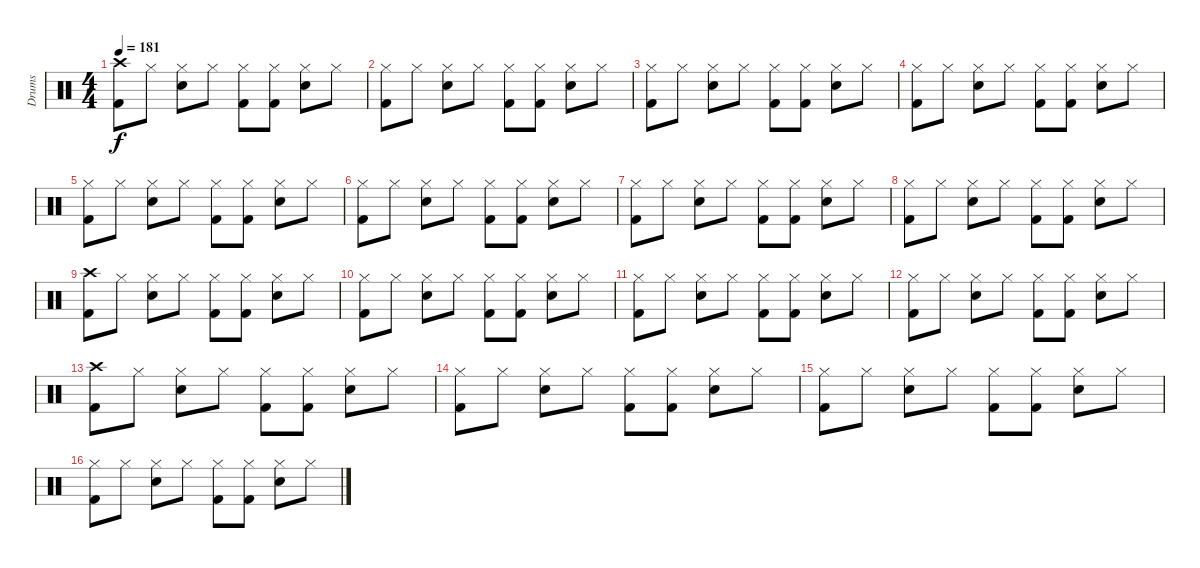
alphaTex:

\track ("Drums" "Drums") {instrument percussion}
\staff {score}
\articulation defaults
\ts (4 4)
\tempo 181
\clef neutral
\ks c
("Crash high (hit)" "Kick (hit) 2").8{dy f} "Hi-Hat (closed)".8 ("Hi-Hat (closed)" "Snare (hit) 2").8 "Hi-Hat (closed)".8 ("Hi-Hat (closed)" "Kick (hit) 2").8 ("Hi-Hat (closed)" "Kick (hit) 2").8 ("Hi-Hat (closed)" "Snare (hit) 2").8 "Hi-Hat (closed)".8 |
("Hi-Hat (closed)" "Kick (hit) 2").8 "Hi-Hat (closed)".8 ("Hi-Hat (closed)" "Snare (hit) 2").8 "Hi-Hat (closed)".8 ("Hi-Hat (closed)" "Kick (hit) 2").8 ("Hi-Hat (closed)" "Kick (hit) 2").8 ("Hi-Hat (closed)" "Snare (hit) 2").8 "Hi-Hat (closed)".8 |
("Hi-Hat (closed)" "Kick (hit) 2").8 "Hi-Hat (closed)".8 ("Hi-Hat (closed)" "Snare (hit) 2").8 "Hi-Hat (closed)".8 ("Hi-Hat (closed)" "Kick (hit) 2").8 ("Hi-Hat (closed)" "Kick (hit) 2").8 ("Hi-Hat (closed)" "Snare (hit) 2").8 "Hi-Hat (closed)".8 |
("Hi-Hat (closed)" "Kick (hit) 2").8 "Hi-Hat (closed)".8 ("Hi-Hat (closed)" "Snare (hit) 2").8 "Hi-Hat (closed)".8 ("Hi-Hat (closed)" "Kick (hit) 2").8 ("Hi-Hat (closed)" "Kick (hit) 2").8 ("Hi-Hat (closed)" "Snare (hit) 2").8 "Hi-Hat (closed)".8 |
("Hi-Hat (closed)" "Kick (hit) 2").8 "Hi-Hat (closed)".8 ("Hi-Hat (closed)" "Snare (hit) 2").8 "Hi-Hat (closed)".8 ("Hi-Hat (closed)" "Kick (hit) 2").8 ("Hi-Hat (closed)" "Kick (hit) 2").8 ("Hi-Hat (closed)" "Snare (hit) 2").8 "Hi-Hat (closed)".8 |
("Hi-Hat (closed)" "Kick (hit) 2").8 "Hi-Hat (closed)".8 ("Hi-Hat (closed)" "Snare (hit) 2").8 "Hi-Hat (closed)".8 ("Hi-Hat (closed)" "Kick (hit) 2").8 ("Hi-Hat (closed)" "Kick (hit) 2").8 ("Hi-Hat (closed)" "Snare (hit) 2").8 "Hi-Hat (closed)".8 |
("Hi-Hat (closed)" "Kick (hit) 2").8 "Hi-Hat (closed)".8 ("Hi-Hat (closed)" "Snare (hit) 2").8 "Hi-Hat (closed)".8 ("Hi-Hat (closed)" "Kick (hit) 2").8 ("Hi-Hat (closed)" "Kick (hit) 2").8 ("Hi-Hat (closed)" "Snare (hit) 2").8 "Hi-Hat (closed)".8 |
("Hi-Hat (closed)" "Kick (hit) 2").8 "Hi-Hat (closed)".8 ("Hi-Hat (closed)" "Snare (hit) 2").8 "Hi-Hat (closed)".8 ("Hi-Hat (closed)" "Kick (hit) 2").8 ("Hi-Hat (closed)" "Kick (hit) 2").8 ("Hi-Hat (closed)" "Snare (hit) 2").8 "Hi-Hat (closed)".8 |
("Crash high (hit)" "Kick (hit) 2").8 "Hi-Hat (closed)".8 ("Hi-Hat (closed)" "Snare (hit) 2").8 "Hi-Hat (closed)".8 ("Hi-Hat (closed)" "Kick (hit) 2").8 ("Hi-Hat (closed)" "Kick (hit) 2").8 ("Hi-Hat (closed)" "Snare (hit) 2").8 "Hi-Hat (closed)".8 |
("Hi-Hat (closed)" "Kick (hit) 2").8 "Hi-Hat (closed)".8 ("Hi-Hat (closed)" "Snare (hit) 2").8 "Hi-Hat (closed)".8 ("Hi-Hat (closed)" "Kick (hit) 2").8 ("Hi-Hat (closed)" "Kick (hit) 2").8 ("Hi-Hat (closed)" "Snare (hit) 2").8 "Hi-Hat (closed)".8 |
("Hi-Hat (closed)" "Kick (hit) 2").8 "Hi-Hat (closed)".8 ("Hi-Hat (closed)" "Snare (hit) 2").8 "Hi-Hat (closed)".8 ("Hi-Hat (closed)" "Kick (hit) 2").8 ("Hi-Hat (closed)" "Kick (hit) 2").8 ("Hi-Hat (closed)" "Snare (hit) 2").8 "Hi-Hat (closed)".8 |
("Hi-Hat (closed)" "Kick (hit) 2").8 "Hi-Hat (closed)".8 ("Hi-Hat (closed)" "Snare (hit) 2").8 "Hi-Hat (closed)".8 ("Hi-Hat (closed)" "Kick (hit) 2").8 ("Hi-Hat (closed)" "Kick (hit) 2").8 ("Hi-Hat (closed)" "Snare (hit) 2").8 "Hi-Hat (closed)".8 |
("Crash high (hit)" "Kick (hit) 2").8 "Hi-Hat (closed)".8 ("Hi-Hat (closed)" "Snare (hit) 2").8 "Hi-Hat (closed)".8 ("Hi-Hat (closed)" "Kick (hit) 2").8 ("Hi-Hat (closed)" "Kick (hit) 2").8 ("Hi-Hat (closed)" "Snare (hit) 2").8 "Hi-Hat (closed)".8 |
("Hi-Hat (closed)" "Kick (hit) 2").8 "Hi-Hat (closed)".8 ("Hi-Hat (closed)" "Snare (hit) 2").8 "Hi-Hat (closed)".8 ("Hi-Hat (closed)" "Kick (hit) 2").8 ("Hi-Hat (closed)" "Kick (hit) 2").8 ("Hi-Hat (closed)" "Snare (hit) 2").8 "Hi-Hat (closed)".8 |
("Hi-Hat (closed)" "Kick (hit) 2").8 "Hi-Hat (closed)".8 ("Hi-Hat (closed)" "Snare (hit) 2").8 "Hi-Hat (closed)".8 ("Hi-Hat (closed)" "Kick (hit) 2").8 ("Hi-Hat (closed)" "Kick (hit) 2").8 ("Hi-Hat (closed)" "Snare (hit) 2").8 "Hi-Hat (closed)".8 |
("Hi-Hat (closed)" "Kick (hit) 2").8 "Hi-Hat (closed)".8 ("Hi-Hat (closed)" "Snare (hit) 2").8 "Hi-Hat (closed)".8 ("Hi-Hat (closed)" "Kick (hit) 2").8 ("Hi-Hat (closed)" "Kick (hit) 2").8 ("Hi-Hat (closed)" "Snare (hit) 2").8 "Hi-Hat (closed)".8
